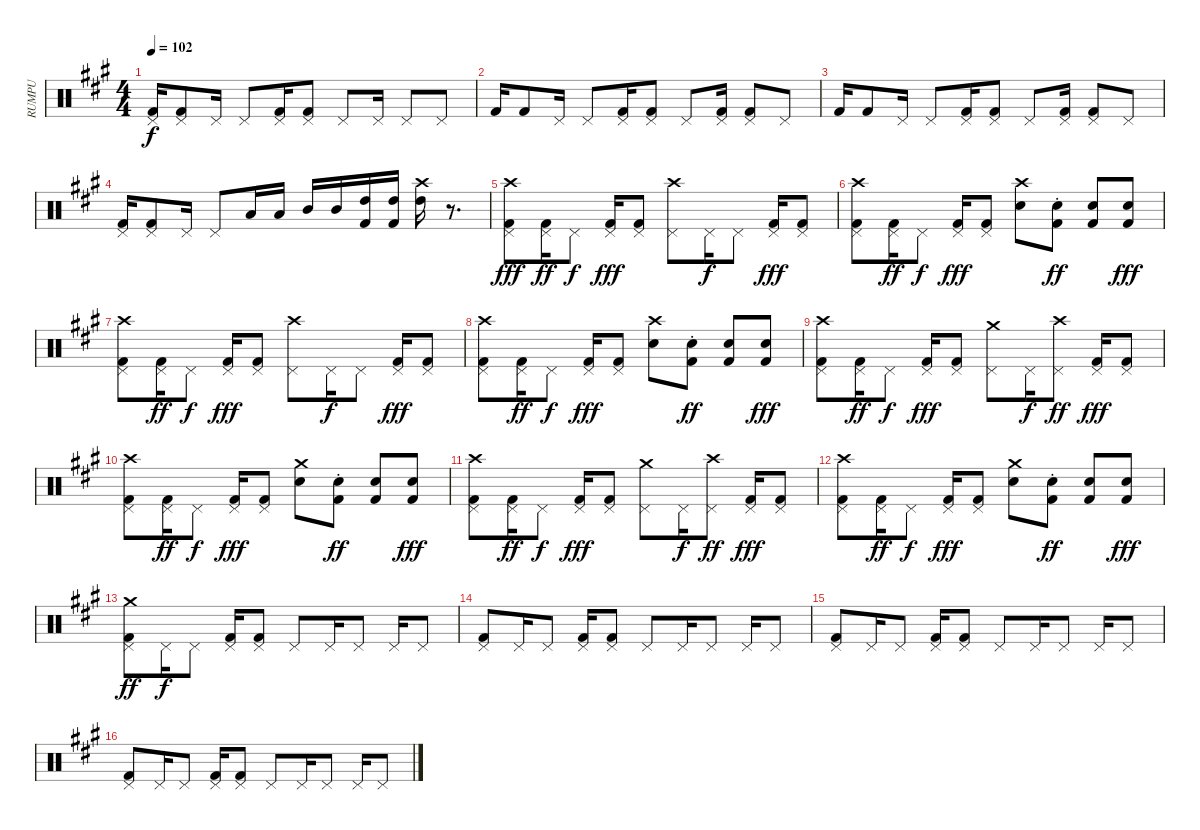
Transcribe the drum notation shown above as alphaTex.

\track ("RUMPU" "RUMPU") {instrument percussion}
\staff {score}
\articulation defaults
\ts (4 4)
\tempo 102
\clef neutral
\ks a
("Kick (hit) 2" "Pedal Hi-Hat (hit)").16{dy f} ("Kick (hit) 2" "Pedal Hi-Hat (hit)").8 "Pedal Hi-Hat (hit)".16 "Pedal Hi-Hat (hit)".8 ("Kick (hit) 2" "Pedal Hi-Hat (hit)").16 ("Kick (hit) 2" "Pedal Hi-Hat (hit)").8 "Pedal Hi-Hat (hit)".8 "Pedal Hi-Hat (hit)".16 "Pedal Hi-Hat (hit)".8 "Pedal Hi-Hat (hit)".8 |
"Kick (hit) 2".16 "Kick (hit) 2".8 "Pedal Hi-Hat (hit)".16 "Pedal Hi-Hat (hit)".8 ("Kick (hit) 2" "Pedal Hi-Hat (hit)").16 ("Kick (hit) 2" "Pedal Hi-Hat (hit)").8 "Pedal Hi-Hat (hit)".8 ("Kick (hit) 2" "Pedal Hi-Hat (hit)").16 ("Kick (hit) 2" "Pedal Hi-Hat (hit)").8 "Pedal Hi-Hat (hit)".8 |
"Kick (hit) 2".16 "Kick (hit) 2".8 "Pedal Hi-Hat (hit)".16 "Pedal Hi-Hat (hit)".8 ("Kick (hit) 2" "Pedal Hi-Hat (hit)").16 ("Kick (hit) 2" "Pedal Hi-Hat (hit)").8 "Pedal Hi-Hat (hit)".8 ("Kick (hit) 2" "Pedal Hi-Hat (hit)").16 ("Kick (hit) 2" "Pedal Hi-Hat (hit)").8 "Pedal Hi-Hat (hit)".8 |
("Kick (hit) 2" "Pedal Hi-Hat (hit)").16 ("Kick (hit) 2" "Pedal Hi-Hat (hit)").8 "Pedal Hi-Hat (hit)".16 "Pedal Hi-Hat (hit)".8 "Low Tom (hit)".16 "Low Tom (hit)".16 "Mid Tom (hit)".16 "Mid Tom (hit)".16 ("Kick (hit) 2" "High Tom (hit)").16 ("Kick (hit) 2" "High Tom (hit)").16 ("Crash high (hit)" "High Tom (hit)").16 r.8{d} |
("Crash high (hit)" "Kick (hit) 2" "Pedal Hi-Hat (hit)").8{dy fff} ("Kick (hit) 2" "Pedal Hi-Hat (hit)").16{dy ff} "Pedal Hi-Hat (hit)".8{dy f} ("Kick (hit) 2" "Pedal Hi-Hat (hit)").16{dy fff} ("Kick (hit) 2" "Pedal Hi-Hat (hit)").8 ("Crash high (hit)" "Pedal Hi-Hat (hit)").8 "Pedal Hi-Hat (hit)".16{dy f} "Pedal Hi-Hat (hit)".8 ("Kick (hit) 2" "Pedal Hi-Hat (hit)").16{dy fff} ("Kick (hit) 2" "Pedal Hi-Hat (hit)").8 |
("Crash high (hit)" "Kick (hit) 2" "Pedal Hi-Hat (hit)").8 ("Kick (hit) 2" "Pedal Hi-Hat (hit)").16{dy ff} "Pedal Hi-Hat (hit)".8{dy f} ("Kick (hit) 2" "Pedal Hi-Hat (hit)").16{dy fff} ("Kick (hit) 2" "Pedal Hi-Hat (hit)").8 ("Crash high (hit)" "Electric Snare (hit)").8 ("Kick (hit) 2" "Electric Snare (hit)"{st}).8{dy ff} ("Kick (hit) 2" "Electric Snare (hit)").8 ("Kick (hit) 2" "Electric Snare (hit)").8{dy fff} |
("Crash high (hit)" "Kick (hit) 2" "Pedal Hi-Hat (hit)").8 ("Kick (hit) 2" "Pedal Hi-Hat (hit)").16{dy ff} "Pedal Hi-Hat (hit)".8{dy f} ("Kick (hit) 2" "Pedal Hi-Hat (hit)").16{dy fff} ("Kick (hit) 2" "Pedal Hi-Hat (hit)").8 ("Crash high (hit)" "Pedal Hi-Hat (hit)").8 "Pedal Hi-Hat (hit)".16{dy f} "Pedal Hi-Hat (hit)".8 ("Kick (hit) 2" "Pedal Hi-Hat (hit)").16{dy fff} ("Kick (hit) 2" "Pedal Hi-Hat (hit)").8 |
("Crash high (hit)" "Kick (hit) 2" "Pedal Hi-Hat (hit)").8 ("Kick (hit) 2" "Pedal Hi-Hat (hit)").16{dy ff} "Pedal Hi-Hat (hit)".8{dy f} ("Kick (hit) 2" "Pedal Hi-Hat (hit)").16{dy fff} ("Kick (hit) 2" "Pedal Hi-Hat (hit)").8 ("Crash high (hit)" "Electric Snare (hit)").8 ("Kick (hit) 2" "Electric Snare (hit)"{st}).8{dy ff} ("Kick (hit) 2" "Electric Snare (hit)").8 ("Kick (hit) 2" "Electric Snare (hit)").8{dy fff} |
("Crash high (hit)" "Kick (hit) 2" "Pedal Hi-Hat (hit)").8 ("Kick (hit) 2" "Pedal Hi-Hat (hit)").16{dy ff} "Pedal Hi-Hat (hit)".8{dy f} ("Kick (hit) 2" "Pedal Hi-Hat (hit)").16{dy fff} ("Kick (hit) 2" "Pedal Hi-Hat (hit)").8 ("Crash medium (hit)" "Pedal Hi-Hat (hit)").8 "Pedal Hi-Hat (hit)".16{dy f} ("Crash high (hit)" "Pedal Hi-Hat (hit)").8{dy ff} ("Kick (hit) 2" "Pedal Hi-Hat (hit)").16{dy fff} ("Kick (hit) 2" "Pedal Hi-Hat (hit)").8 |
("Crash high (hit)" "Kick (hit) 2" "Pedal Hi-Hat (hit)").8 ("Kick (hit) 2" "Pedal Hi-Hat (hit)").16{dy ff} "Pedal Hi-Hat (hit)".8{dy f} ("Kick (hit) 2" "Pedal Hi-Hat (hit)").16{dy fff} ("Kick (hit) 2" "Pedal Hi-Hat (hit)").8 ("Crash medium (hit)" "Electric Snare (hit)").8 ("Kick (hit) 2" "Electric Snare (hit)"{st}).8{dy ff} ("Kick (hit) 2" "Electric Snare (hit)").8 ("Kick (hit) 2" "Electric Snare (hit)").8{dy fff} |
("Crash high (hit)" "Kick (hit) 2" "Pedal Hi-Hat (hit)").8 ("Kick (hit) 2" "Pedal Hi-Hat (hit)").16{dy ff} "Pedal Hi-Hat (hit)".8{dy f} ("Kick (hit) 2" "Pedal Hi-Hat (hit)").16{dy fff} ("Kick (hit) 2" "Pedal Hi-Hat (hit)").8 ("Crash medium (hit)" "Pedal Hi-Hat (hit)").8 "Pedal Hi-Hat (hit)".16{dy f} ("Crash high (hit)" "Pedal Hi-Hat (hit)").8{dy ff} ("Kick (hit) 2" "Pedal Hi-Hat (hit)").16{dy fff} ("Kick (hit) 2" "Pedal Hi-Hat (hit)").8 |
("Crash high (hit)" "Kick (hit) 2" "Pedal Hi-Hat (hit)").8 ("Kick (hit) 2" "Pedal Hi-Hat (hit)").16{dy ff} "Pedal Hi-Hat (hit)".8{dy f} ("Kick (hit) 2" "Pedal Hi-Hat (hit)").16{dy fff} ("Kick (hit) 2" "Pedal Hi-Hat (hit)").8 ("Crash medium (hit)" "Electric Snare (hit)").8 ("Kick (hit) 2" "Electric Snare (hit)"{st}).8{dy ff} ("Kick (hit) 2" "Electric Snare (hit)").8 ("Kick (hit) 2" "Electric Snare (hit)").8{dy fff} |
("Crash medium (hit)" "Kick (hit) 2" "Pedal Hi-Hat (hit)").8{dy ff} "Pedal Hi-Hat (hit)".16{dy f} "Pedal Hi-Hat (hit)".8 ("Kick (hit) 2" "Pedal Hi-Hat (hit)").16 ("Kick (hit) 2" "Pedal Hi-Hat (hit)").8 "Pedal Hi-Hat (hit)".8 "Pedal Hi-Hat (hit)".16 "Pedal Hi-Hat (hit)".8 "Pedal Hi-Hat (hit)".16 "Pedal Hi-Hat (hit)".8 |
("Kick (hit) 2" "Pedal Hi-Hat (hit)").8 "Pedal Hi-Hat (hit)".16 "Pedal Hi-Hat (hit)".8 ("Kick (hit) 2" "Pedal Hi-Hat (hit)").16 ("Kick (hit) 2" "Pedal Hi-Hat (hit)").8 "Pedal Hi-Hat (hit)".8 "Pedal Hi-Hat (hit)".16 "Pedal Hi-Hat (hit)".8 "Pedal Hi-Hat (hit)".16 "Pedal Hi-Hat (hit)".8 |
("Kick (hit) 2" "Pedal Hi-Hat (hit)").8 "Pedal Hi-Hat (hit)".16 "Pedal Hi-Hat (hit)".8 ("Kick (hit) 2" "Pedal Hi-Hat (hit)").16 ("Kick (hit) 2" "Pedal Hi-Hat (hit)").8 "Pedal Hi-Hat (hit)".8 "Pedal Hi-Hat (hit)".16 "Pedal Hi-Hat (hit)".8 "Pedal Hi-Hat (hit)".16 "Pedal Hi-Hat (hit)".8 |
("Kick (hit) 2" "Pedal Hi-Hat (hit)").8 "Pedal Hi-Hat (hit)".16 "Pedal Hi-Hat (hit)".8 ("Kick (hit) 2" "Pedal Hi-Hat (hit)").16 ("Kick (hit) 2" "Pedal Hi-Hat (hit)").8 "Pedal Hi-Hat (hit)".8 "Pedal Hi-Hat (hit)".16 "Pedal Hi-Hat (hit)".8 "Pedal Hi-Hat (hit)".16 "Pedal Hi-Hat (hit)".8
